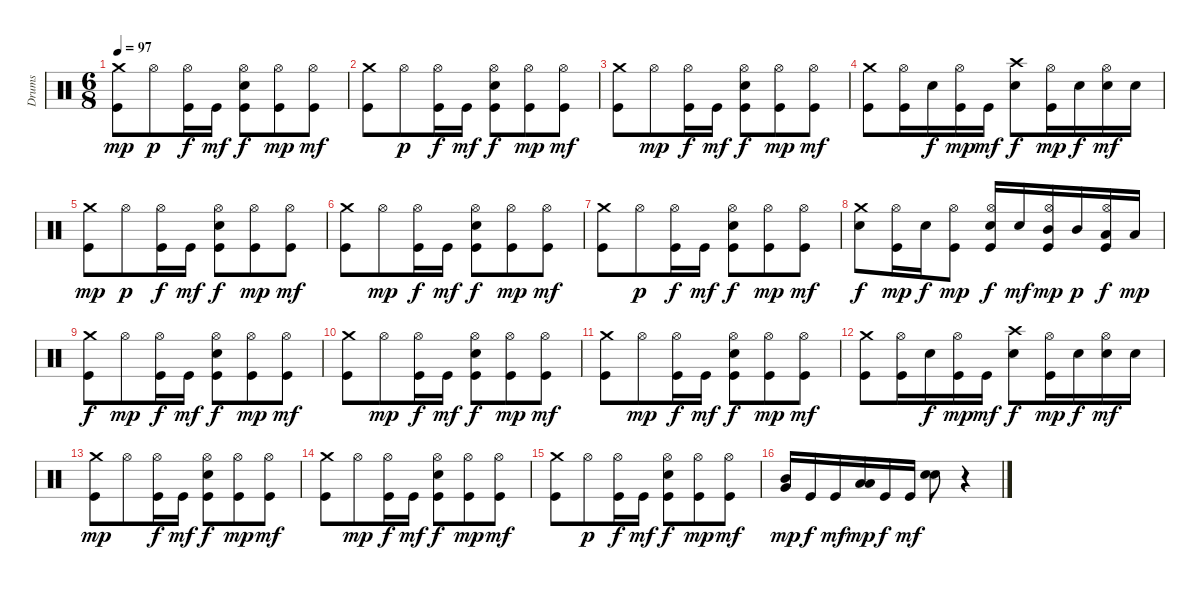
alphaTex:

\track ("Drums" "Drums") {instrument percussion}
\staff {score}
\articulation defaults
\ts (6 8)
\tempo 97
\clef neutral
\ks c
("Crash medium (hit)" "Kick (hit)").8{dy mp} "Hi-Hat (open)".8{dy p} ("Hi-Hat (open)" "Kick (hit)").16{dy f} "Kick (hit)".16{dy mf} ("Hi-Hat (open)" "Kick (hit)" "Snare (hit) 2").8{dy f} ("Hi-Hat (open)" "Kick (hit)").8{dy mp} ("Hi-Hat (open)" "Kick (hit)").8{dy mf} |
("Crash medium (hit)" "Kick (hit)").8 "Hi-Hat (open)".8{dy p} ("Hi-Hat (open)" "Kick (hit)").16{dy f} "Kick (hit)".16{dy mf} ("Hi-Hat (open)" "Kick (hit)" "Snare (hit) 2").8{dy f} ("Hi-Hat (open)" "Kick (hit)").8{dy mp} ("Hi-Hat (open)" "Kick (hit)").8{dy mf} |
("Crash medium (hit)" "Kick (hit)").8 "Hi-Hat (open)".8{dy mp} ("Hi-Hat (open)" "Kick (hit)").16{dy f} "Kick (hit)".16{dy mf} ("Hi-Hat (open)" "Kick (hit)" "Snare (hit) 2").8{dy f} ("Hi-Hat (open)" "Kick (hit)").8{dy mp} ("Hi-Hat (open)" "Kick (hit)").8{dy mf} |
("Crash medium (hit)" "Kick (hit)").8 ("Hi-Hat (open)" "Kick (hit)").16 "Snare (hit) 2".16{dy f} ("Hi-Hat (open)" "Kick (hit)").16{dy mp} "Kick (hit)".16{dy mf} ("Crash high (hit)" "Snare (hit) 2").8{dy f} ("Hi-Hat (open)" "Kick (hit)").16{dy mp} "Snare (hit) 2".16{dy f} ("Hi-Hat (open)" "Snare (hit) 2").16{dy mf} "Snare (hit) 2".16 |
("Crash medium (hit)" "Kick (hit)").8{dy mp} "Hi-Hat (open)".8{dy p} ("Hi-Hat (open)" "Kick (hit)").16{dy f} "Kick (hit)".16{dy mf} ("Hi-Hat (open)" "Kick (hit)" "Snare (hit) 2").8{dy f} ("Hi-Hat (open)" "Kick (hit)").8{dy mp} ("Hi-Hat (open)" "Kick (hit)").8{dy mf} |
("Crash medium (hit)" "Kick (hit)").8 "Hi-Hat (open)".8{dy mp} ("Hi-Hat (open)" "Kick (hit)").16{dy f} "Kick (hit)".16{dy mf} ("Hi-Hat (open)" "Kick (hit)" "Snare (hit) 2").8{dy f} ("Hi-Hat (open)" "Kick (hit)").8{dy mp} ("Hi-Hat (open)" "Kick (hit)").8{dy mf} |
("Crash medium (hit)" "Kick (hit)").8 "Hi-Hat (open)".8{dy p} ("Hi-Hat (open)" "Kick (hit)").16{dy f} "Kick (hit)".16{dy mf} ("Hi-Hat (open)" "Kick (hit)" "Snare (hit) 2").8{dy f} ("Hi-Hat (open)" "Kick (hit)").8{dy mp} ("Hi-Hat (open)" "Kick (hit)").8{dy mf} |
("Crash medium (hit)" "Snare (hit) 2").8{dy f} ("Hi-Hat (open)" "Kick (hit)").16{dy mp} "Snare (hit) 2".16{dy f} ("Hi-Hat (open)" "Kick (hit)").8{dy mp} ("Hi-Hat (open)" "Kick (hit)" "Snare (hit) 2").16{dy f} "Snare (hit) 2".16{dy mf} ("Hi-Hat (open)" "Mid Tom (hit)" "Kick (hit)").16{dy mp} "Mid Tom (hit)".16{dy p} ("Hi-Hat (open)" "Low Tom (hit)" "Kick (hit)").16{dy f} "Low Tom (hit)".16{dy mp} |
("Crash medium (hit)" "Kick (hit)").8{dy f} "Hi-Hat (open)".8{dy mp} ("Hi-Hat (open)" "Kick (hit)").16{dy f} "Kick (hit)".16{dy mf} ("Hi-Hat (open)" "Kick (hit)" "Snare (hit) 2").8{dy f} ("Hi-Hat (open)" "Kick (hit)").8{dy mp} ("Hi-Hat (open)" "Kick (hit)").8{dy mf} |
("Crash medium (hit)" "Kick (hit)").8 "Hi-Hat (open)".8{dy mp} ("Hi-Hat (open)" "Kick (hit)").16{dy f} "Kick (hit)".16{dy mf} ("Hi-Hat (open)" "Kick (hit)" "Snare (hit) 2").8{dy f} ("Hi-Hat (open)" "Kick (hit)").8{dy mp} ("Hi-Hat (open)" "Kick (hit)").8{dy mf} |
("Crash medium (hit)" "Kick (hit)").8 "Hi-Hat (open)".8{dy mp} ("Hi-Hat (open)" "Kick (hit)").16{dy f} "Kick (hit)".16{dy mf} ("Hi-Hat (open)" "Kick (hit)" "Snare (hit) 2").8{dy f} ("Hi-Hat (open)" "Kick (hit)").8{dy mp} ("Hi-Hat (open)" "Kick (hit)").8{dy mf} |
("Crash medium (hit)" "Kick (hit)").8 ("Hi-Hat (open)" "Kick (hit)").16 "Snare (hit) 2".16{dy f} ("Hi-Hat (open)" "Kick (hit)").16{dy mp} "Kick (hit)".16{dy mf} ("Crash high (hit)" "Snare (hit) 2").8{dy f} ("Hi-Hat (open)" "Kick (hit)").16{dy mp} "Snare (hit) 2".16{dy f} ("Hi-Hat (open)" "Snare (hit) 2").16{dy mf} "Snare (hit) 2".16 |
("Crash medium (hit)" "Kick (hit)").8{dy mp} "Hi-Hat (open)".8 ("Hi-Hat (open)" "Kick (hit)").16{dy f} "Kick (hit)".16{dy mf} ("Hi-Hat (open)" "Kick (hit)" "Snare (hit) 2").8{dy f} ("Hi-Hat (open)" "Kick (hit)").8{dy mp} ("Hi-Hat (open)" "Kick (hit)").8{dy mf} |
("Crash medium (hit)" "Kick (hit)").8 "Hi-Hat (open)".8{dy mp} ("Hi-Hat (open)" "Kick (hit)").16{dy f} "Kick (hit)".16{dy mf} ("Hi-Hat (open)" "Kick (hit)" "Snare (hit) 2").8{dy f} ("Hi-Hat (open)" "Kick (hit)").8{dy mp} ("Hi-Hat (open)" "Kick (hit)").8{dy mf} |
("Crash medium (hit)" "Kick (hit)").8 "Hi-Hat (open)".8{dy p} ("Hi-Hat (open)" "Kick (hit)").16{dy f} "Kick (hit)".16{dy mf} ("Hi-Hat (open)" "Kick (hit)" "Snare (hit) 2").8{dy f} ("Hi-Hat (open)" "Kick (hit)").8{dy mp} ("Hi-Hat (open)" "Kick (hit)").8{dy mf} |
("Very Low Tom (hit)" "Mid Tom (hit)").16{dy mp} "Kick (hit)".16{dy f} "Kick (hit)".16{dy mf} ("Low Floor Tom (hit)" "Low Tom (hit)").16{dy mp} "Kick (hit)".16{dy f} "Kick (hit)".16{dy mf} ("Snare (hit) 2" "Snare (hit) 2").8 r.4
